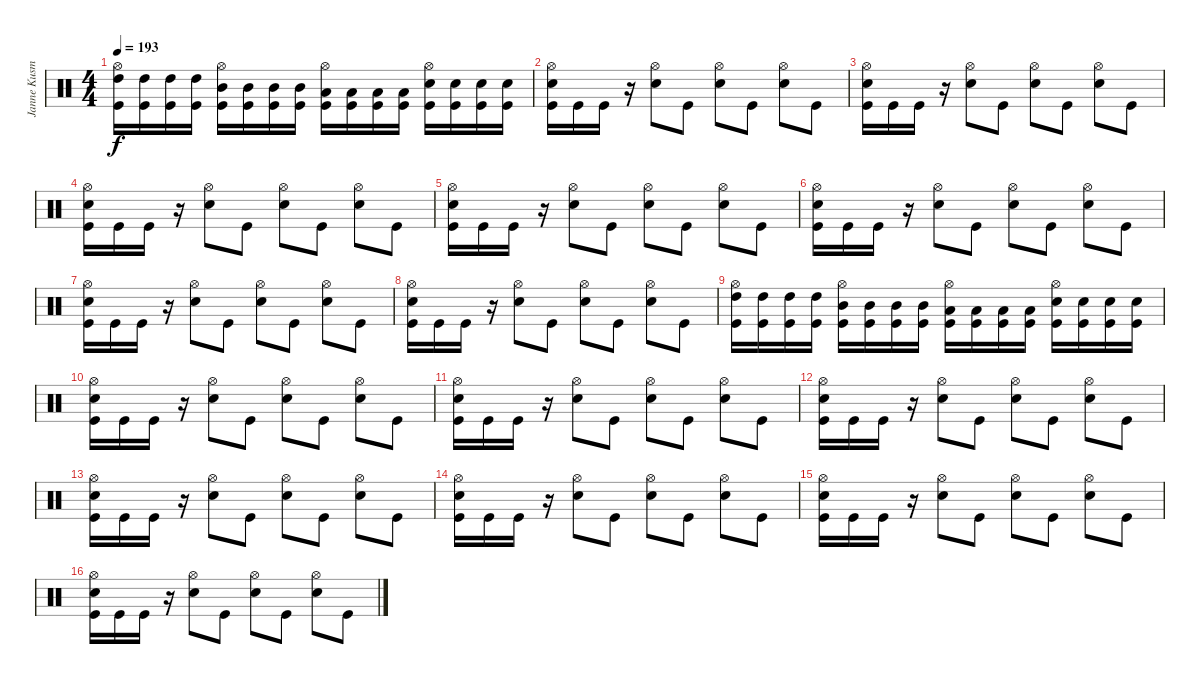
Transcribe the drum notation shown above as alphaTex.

\track ("Janne Kusmin " "Janne Kusm") {instrument percussion}
\staff {score}
\articulation defaults
\ts (4 4)
\tempo 193
\clef neutral
\ks c
("Hi-Hat (open)" "High Tom (hit)" "Kick (hit)").16{dy f} ("High Tom (hit)" "Kick (hit)").16 ("High Tom (hit)" "Kick (hit)").16 ("High Tom (hit)" "Kick (hit)").16 ("Hi-Hat (open)" "Mid Tom (hit)" "Kick (hit)").16 ("Mid Tom (hit)" "Kick (hit)").16 ("Mid Tom (hit)" "Kick (hit)").16 ("Mid Tom (hit)" "Kick (hit)").16 ("Hi-Hat (open)" "Low Tom (hit)" "Kick (hit)").16 ("Low Tom (hit)" "Kick (hit)").16 ("Low Tom (hit)" "Kick (hit)").16 ("Low Tom (hit)" "Kick (hit)").16 ("Hi-Hat (open)" "Snare (hit) 2" "Kick (hit)").16 ("Snare (hit) 2" "Kick (hit)").16 ("Snare (hit) 2" "Kick (hit)").16 ("Snare (hit) 2" "Kick (hit)").16 |
("Hi-Hat (open)" "Snare (hit) 2" "Kick (hit)").16 "Kick (hit)".16 "Kick (hit)".16 r.16 ("Hi-Hat (open)" "Snare (hit) 2").8 "Kick (hit)".8 ("Hi-Hat (open)" "Snare (hit) 2").8 "Kick (hit)".8 ("Hi-Hat (open)" "Snare (hit) 2").8 "Kick (hit)".8 |
("Hi-Hat (open)" "Snare (hit) 2" "Kick (hit)").16 "Kick (hit)".16 "Kick (hit)".16 r.16 ("Hi-Hat (open)" "Snare (hit) 2").8 "Kick (hit)".8 ("Hi-Hat (open)" "Snare (hit) 2").8 "Kick (hit)".8 ("Hi-Hat (open)" "Snare (hit) 2").8 "Kick (hit)".8 |
("Hi-Hat (open)" "Snare (hit) 2" "Kick (hit)").16 "Kick (hit)".16 "Kick (hit)".16 r.16 ("Hi-Hat (open)" "Snare (hit) 2").8 "Kick (hit)".8 ("Hi-Hat (open)" "Snare (hit) 2").8 "Kick (hit)".8 ("Hi-Hat (open)" "Snare (hit) 2").8 "Kick (hit)".8 |
("Hi-Hat (open)" "Snare (hit) 2" "Kick (hit)").16 "Kick (hit)".16 "Kick (hit)".16 r.16 ("Hi-Hat (open)" "Snare (hit) 2").8 "Kick (hit)".8 ("Hi-Hat (open)" "Snare (hit) 2").8 "Kick (hit)".8 ("Hi-Hat (open)" "Snare (hit) 2").8 "Kick (hit)".8 |
("Hi-Hat (open)" "Snare (hit) 2" "Kick (hit)").16 "Kick (hit)".16 "Kick (hit)".16 r.16 ("Hi-Hat (open)" "Snare (hit) 2").8 "Kick (hit)".8 ("Hi-Hat (open)" "Snare (hit) 2").8 "Kick (hit)".8 ("Hi-Hat (open)" "Snare (hit) 2").8 "Kick (hit)".8 |
("Hi-Hat (open)" "Snare (hit) 2" "Kick (hit)").16 "Kick (hit)".16 "Kick (hit)".16 r.16 ("Hi-Hat (open)" "Snare (hit) 2").8 "Kick (hit)".8 ("Hi-Hat (open)" "Snare (hit) 2").8 "Kick (hit)".8 ("Hi-Hat (open)" "Snare (hit) 2").8 "Kick (hit)".8 |
("Hi-Hat (open)" "Snare (hit) 2" "Kick (hit)").16 "Kick (hit)".16 "Kick (hit)".16 r.16 ("Hi-Hat (open)" "Snare (hit) 2").8 "Kick (hit)".8 ("Hi-Hat (open)" "Snare (hit) 2").8 "Kick (hit)".8 ("Hi-Hat (open)" "Snare (hit) 2").8 "Kick (hit)".8 |
("Hi-Hat (open)" "High Tom (hit)" "Kick (hit)").16 ("High Tom (hit)" "Kick (hit)").16 ("High Tom (hit)" "Kick (hit)").16 ("High Tom (hit)" "Kick (hit)").16 ("Hi-Hat (open)" "Mid Tom (hit)" "Kick (hit)").16 ("Mid Tom (hit)" "Kick (hit)").16 ("Mid Tom (hit)" "Kick (hit)").16 ("Mid Tom (hit)" "Kick (hit)").16 ("Hi-Hat (open)" "Low Tom (hit)" "Kick (hit)").16 ("Low Tom (hit)" "Kick (hit)").16 ("Low Tom (hit)" "Kick (hit)").16 ("Low Tom (hit)" "Kick (hit)").16 ("Hi-Hat (open)" "Snare (hit) 2" "Kick (hit)").16 ("Snare (hit) 2" "Kick (hit)").16 ("Snare (hit) 2" "Kick (hit)").16 ("Snare (hit) 2" "Kick (hit)").16 |
("Hi-Hat (open)" "Snare (hit) 2" "Kick (hit)").16 "Kick (hit)".16 "Kick (hit)".16 r.16 ("Hi-Hat (open)" "Snare (hit) 2").8 "Kick (hit)".8 ("Hi-Hat (open)" "Snare (hit) 2").8 "Kick (hit)".8 ("Hi-Hat (open)" "Snare (hit) 2").8 "Kick (hit)".8 |
("Hi-Hat (open)" "Snare (hit) 2" "Kick (hit)").16 "Kick (hit)".16 "Kick (hit)".16 r.16 ("Hi-Hat (open)" "Snare (hit) 2").8 "Kick (hit)".8 ("Hi-Hat (open)" "Snare (hit) 2").8 "Kick (hit)".8 ("Hi-Hat (open)" "Snare (hit) 2").8 "Kick (hit)".8 |
("Hi-Hat (open)" "Snare (hit) 2" "Kick (hit)").16 "Kick (hit)".16 "Kick (hit)".16 r.16 ("Hi-Hat (open)" "Snare (hit) 2").8 "Kick (hit)".8 ("Hi-Hat (open)" "Snare (hit) 2").8 "Kick (hit)".8 ("Hi-Hat (open)" "Snare (hit) 2").8 "Kick (hit)".8 |
("Hi-Hat (open)" "Snare (hit) 2" "Kick (hit)").16 "Kick (hit)".16 "Kick (hit)".16 r.16 ("Hi-Hat (open)" "Snare (hit) 2").8 "Kick (hit)".8 ("Hi-Hat (open)" "Snare (hit) 2").8 "Kick (hit)".8 ("Hi-Hat (open)" "Snare (hit) 2").8 "Kick (hit)".8 |
("Hi-Hat (open)" "Snare (hit) 2" "Kick (hit)").16 "Kick (hit)".16 "Kick (hit)".16 r.16 ("Hi-Hat (open)" "Snare (hit) 2").8 "Kick (hit)".8 ("Hi-Hat (open)" "Snare (hit) 2").8 "Kick (hit)".8 ("Hi-Hat (open)" "Snare (hit) 2").8 "Kick (hit)".8 |
("Hi-Hat (open)" "Snare (hit) 2" "Kick (hit)").16 "Kick (hit)".16 "Kick (hit)".16 r.16 ("Hi-Hat (open)" "Snare (hit) 2").8 "Kick (hit)".8 ("Hi-Hat (open)" "Snare (hit) 2").8 "Kick (hit)".8 ("Hi-Hat (open)" "Snare (hit) 2").8 "Kick (hit)".8 |
("Hi-Hat (open)" "Snare (hit) 2" "Kick (hit)").16 "Kick (hit)".16 "Kick (hit)".16 r.16 ("Hi-Hat (open)" "Snare (hit) 2").8 "Kick (hit)".8 ("Hi-Hat (open)" "Snare (hit) 2").8 "Kick (hit)".8 ("Hi-Hat (open)" "Snare (hit) 2").8 "Kick (hit)".8
